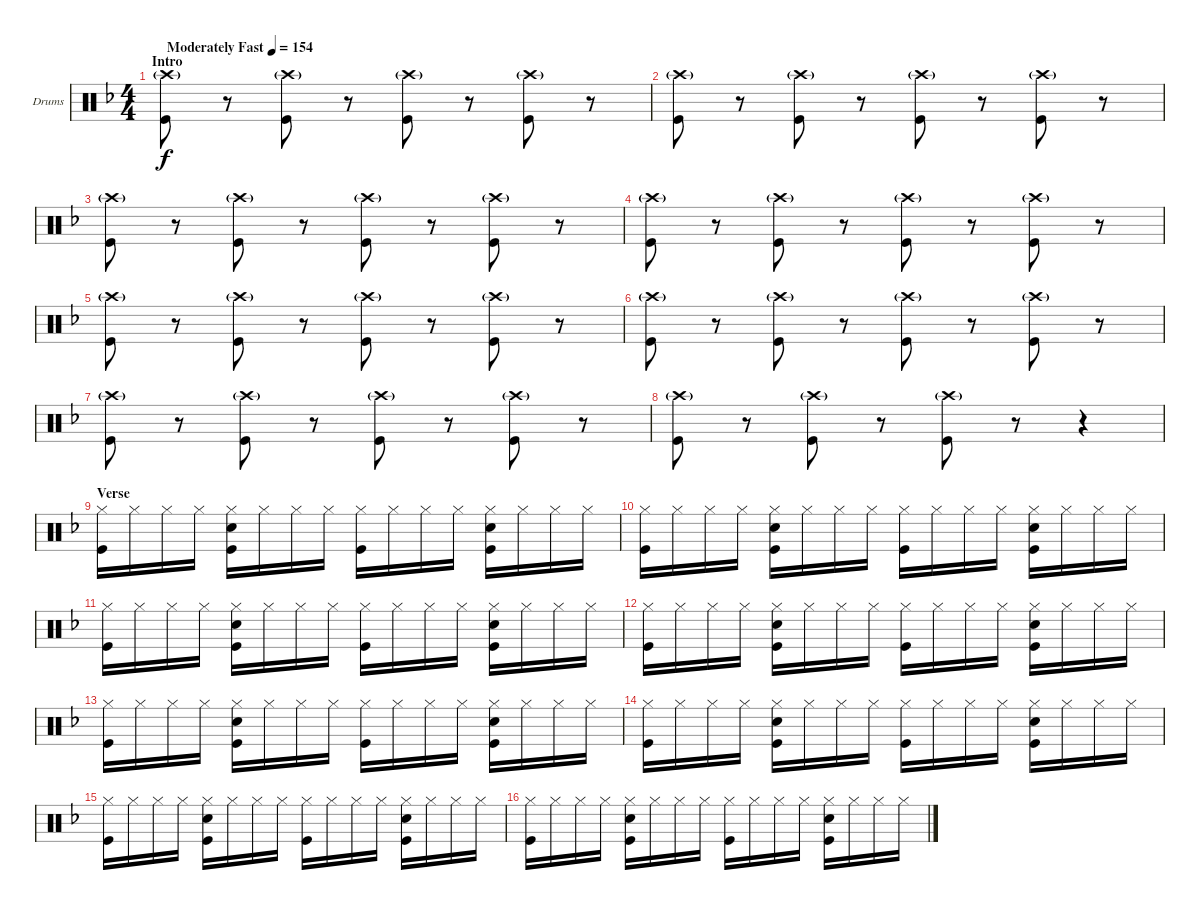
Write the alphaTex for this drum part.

\defaultSystemsLayout 4
\bracketExtendMode groupsimilarinstruments
\firstSystemTrackNameOrientation horizontal
\otherSystemsTrackNameOrientation horizontal
\track ("Drumkit" "Drums") {instrument percussion}
\staff {score}
\articulation defaults
\ts (4 4)
\section ("" "Intro")
\tempo (154 "Moderately Fast")
\clef neutral
\ks f
("Kick (hit)" "Crash high (hit)"{g}).8{dy f} r.8 ("Crash high (hit)"{g} "Kick (hit)").8 r.8 ("Crash high (hit)"{g} "Kick (hit)").8 r.8 ("Crash high (hit)"{g} "Kick (hit)").8 r.8 |
("Kick (hit)" "Crash high (hit)"{g}).8 r.8 ("Crash high (hit)"{g} "Kick (hit)").8 r.8 ("Crash high (hit)"{g} "Kick (hit)").8 r.8 ("Crash high (hit)"{g} "Kick (hit)").8 r.8 |
("Kick (hit)" "Crash high (hit)"{g}).8 r.8 ("Crash high (hit)"{g} "Kick (hit)").8 r.8 ("Crash high (hit)"{g} "Kick (hit)").8 r.8 ("Crash high (hit)"{g} "Kick (hit)").8 r.8 |
("Kick (hit)" "Crash high (hit)"{g}).8 r.8 ("Crash high (hit)"{g} "Kick (hit)").8 r.8 ("Crash high (hit)"{g} "Kick (hit)").8 r.8 ("Crash high (hit)"{g} "Kick (hit)").8 r.8 |
("Kick (hit)" "Crash high (hit)"{g}).8 r.8 ("Crash high (hit)"{g} "Kick (hit)").8 r.8 ("Crash high (hit)"{g} "Kick (hit)").8 r.8 ("Crash high (hit)"{g} "Kick (hit)").8 r.8 |
("Kick (hit)" "Crash high (hit)"{g}).8 r.8 ("Crash high (hit)"{g} "Kick (hit)").8 r.8 ("Crash high (hit)"{g} "Kick (hit)").8 r.8 ("Crash high (hit)"{g} "Kick (hit)").8 r.8 |
("Kick (hit)" "Crash high (hit)"{g}).8 r.8 ("Crash high (hit)"{g} "Kick (hit)").8 r.8 ("Crash high (hit)"{g} "Kick (hit)").8 r.8 ("Crash high (hit)"{g} "Kick (hit)").8 r.8 |
("Kick (hit)" "Crash high (hit)"{g}).8 r.8 ("Crash high (hit)"{g} "Kick (hit)").8 r.8 ("Crash high (hit)"{g} "Kick (hit)").8 r.8 r.4 |
\section ("" "Verse")
("Hi-Hat (closed)" "Kick (hit)").16 "Hi-Hat (closed)".16 "Hi-Hat (closed)".16 "Hi-Hat (closed)".16 ("Hi-Hat (closed)" "Snare (hit) 2" "Kick (hit)").16 "Hi-Hat (closed)".16 "Hi-Hat (closed)".16 "Hi-Hat (closed)".16 ("Hi-Hat (closed)" "Kick (hit)").16 "Hi-Hat (closed)".16 "Hi-Hat (closed)".16 "Hi-Hat (closed)".16 ("Hi-Hat (closed)" "Kick (hit)" "Snare (hit) 2").16 "Hi-Hat (closed)".16 "Hi-Hat (closed)".16 "Hi-Hat (closed)".16 |
("Hi-Hat (closed)" "Kick (hit)").16 "Hi-Hat (closed)".16 "Hi-Hat (closed)".16 "Hi-Hat (closed)".16 ("Hi-Hat (closed)" "Snare (hit) 2" "Kick (hit)").16 "Hi-Hat (closed)".16 "Hi-Hat (closed)".16 "Hi-Hat (closed)".16 ("Hi-Hat (closed)" "Kick (hit)").16 "Hi-Hat (closed)".16 "Hi-Hat (closed)".16 "Hi-Hat (closed)".16 ("Hi-Hat (closed)" "Kick (hit)" "Snare (hit) 2").16 "Hi-Hat (closed)".16 "Hi-Hat (closed)".16 "Hi-Hat (closed)".16 |
("Hi-Hat (closed)" "Kick (hit)").16 "Hi-Hat (closed)".16 "Hi-Hat (closed)".16 "Hi-Hat (closed)".16 ("Hi-Hat (closed)" "Snare (hit) 2" "Kick (hit)").16 "Hi-Hat (closed)".16 "Hi-Hat (closed)".16 "Hi-Hat (closed)".16 ("Hi-Hat (closed)" "Kick (hit)").16 "Hi-Hat (closed)".16 "Hi-Hat (closed)".16 "Hi-Hat (closed)".16 ("Hi-Hat (closed)" "Kick (hit)" "Snare (hit) 2").16 "Hi-Hat (closed)".16 "Hi-Hat (closed)".16 "Hi-Hat (closed)".16 |
("Hi-Hat (closed)" "Kick (hit)").16 "Hi-Hat (closed)".16 "Hi-Hat (closed)".16 "Hi-Hat (closed)".16 ("Hi-Hat (closed)" "Snare (hit) 2" "Kick (hit)").16 "Hi-Hat (closed)".16 "Hi-Hat (closed)".16 "Hi-Hat (closed)".16 ("Hi-Hat (closed)" "Kick (hit)").16 "Hi-Hat (closed)".16 "Hi-Hat (closed)".16 "Hi-Hat (closed)".16 ("Hi-Hat (closed)" "Kick (hit)" "Snare (hit) 2").16 "Hi-Hat (closed)".16 "Hi-Hat (closed)".16 "Hi-Hat (closed)".16 |
("Hi-Hat (closed)" "Kick (hit)").16 "Hi-Hat (closed)".16 "Hi-Hat (closed)".16 "Hi-Hat (closed)".16 ("Hi-Hat (closed)" "Snare (hit) 2" "Kick (hit)").16 "Hi-Hat (closed)".16 "Hi-Hat (closed)".16 "Hi-Hat (closed)".16 ("Hi-Hat (closed)" "Kick (hit)").16 "Hi-Hat (closed)".16 "Hi-Hat (closed)".16 "Hi-Hat (closed)".16 ("Hi-Hat (closed)" "Kick (hit)" "Snare (hit) 2").16 "Hi-Hat (closed)".16 "Hi-Hat (closed)".16 "Hi-Hat (closed)".16 |
("Hi-Hat (closed)" "Kick (hit)").16 "Hi-Hat (closed)".16 "Hi-Hat (closed)".16 "Hi-Hat (closed)".16 ("Hi-Hat (closed)" "Snare (hit) 2" "Kick (hit)").16 "Hi-Hat (closed)".16 "Hi-Hat (closed)".16 "Hi-Hat (closed)".16 ("Hi-Hat (closed)" "Kick (hit)").16 "Hi-Hat (closed)".16 "Hi-Hat (closed)".16 "Hi-Hat (closed)".16 ("Hi-Hat (closed)" "Kick (hit)" "Snare (hit) 2").16 "Hi-Hat (closed)".16 "Hi-Hat (closed)".16 "Hi-Hat (closed)".16 |
("Hi-Hat (closed)" "Kick (hit)").16 "Hi-Hat (closed)".16 "Hi-Hat (closed)".16 "Hi-Hat (closed)".16 ("Hi-Hat (closed)" "Snare (hit) 2" "Kick (hit)").16 "Hi-Hat (closed)".16 "Hi-Hat (closed)".16 "Hi-Hat (closed)".16 ("Hi-Hat (closed)" "Kick (hit)").16 "Hi-Hat (closed)".16 "Hi-Hat (closed)".16 "Hi-Hat (closed)".16 ("Hi-Hat (closed)" "Kick (hit)" "Snare (hit) 2").16 "Hi-Hat (closed)".16 "Hi-Hat (closed)".16 "Hi-Hat (closed)".16 |
("Hi-Hat (closed)" "Kick (hit)").16 "Hi-Hat (closed)".16 "Hi-Hat (closed)".16 "Hi-Hat (closed)".16 ("Hi-Hat (closed)" "Snare (hit) 2" "Kick (hit)").16 "Hi-Hat (closed)".16 "Hi-Hat (closed)".16 "Hi-Hat (closed)".16 ("Hi-Hat (closed)" "Kick (hit)").16 "Hi-Hat (closed)".16 "Hi-Hat (closed)".16 "Hi-Hat (closed)".16 ("Hi-Hat (closed)" "Kick (hit)" "Snare (hit) 2").16 "Hi-Hat (closed)".16 "Hi-Hat (closed)".16 "Hi-Hat (closed)".16
